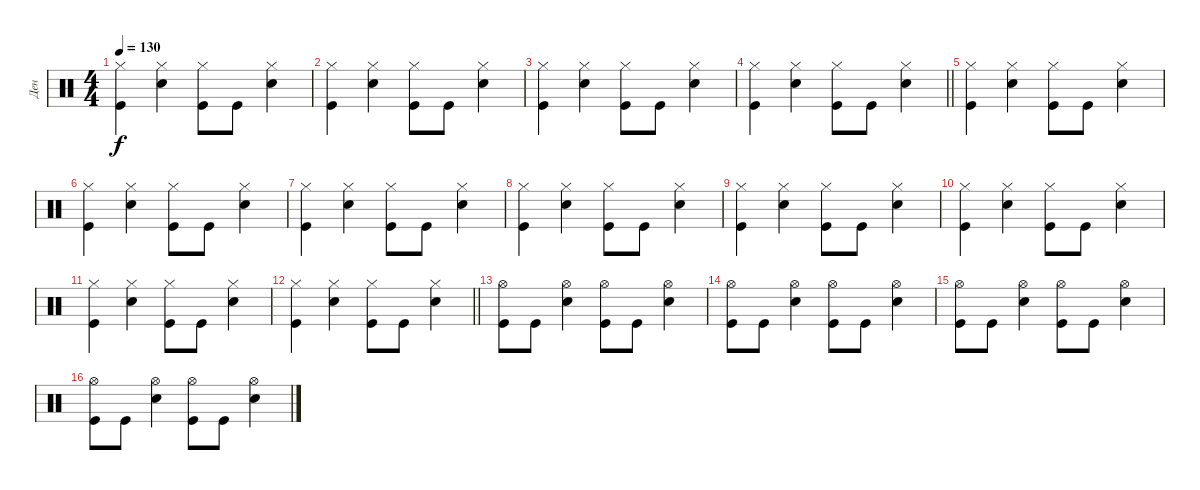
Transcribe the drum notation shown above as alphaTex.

\track ("Ден" "Ден") {instrument percussion}
\staff {score}
\articulation defaults
\ts (4 4)
\tempo 130
\clef neutral
\ks c
("Kick (hit)" "Hi-Hat (closed)").4{dy f} ("Snare (hit) 2" "Hi-Hat (closed)").4 ("Kick (hit)" "Hi-Hat (closed)").8 "Kick (hit)".8 ("Snare (hit) 2" "Hi-Hat (closed)").4 |
("Kick (hit)" "Hi-Hat (closed)").4 ("Snare (hit) 2" "Hi-Hat (closed)").4 ("Kick (hit)" "Hi-Hat (closed)").8 "Kick (hit)".8 ("Snare (hit) 2" "Hi-Hat (closed)").4 |
("Kick (hit)" "Hi-Hat (closed)").4 ("Snare (hit) 2" "Hi-Hat (closed)").4 ("Kick (hit)" "Hi-Hat (closed)").8 "Kick (hit)".8 ("Snare (hit) 2" "Hi-Hat (closed)").4 |
\barLineRight lightlight
("Kick (hit)" "Hi-Hat (closed)").4 ("Snare (hit) 2" "Hi-Hat (closed)").4 ("Kick (hit)" "Hi-Hat (closed)").8 "Kick (hit)".8 ("Snare (hit) 2" "Hi-Hat (closed)").4 |
("Kick (hit)" "Hi-Hat (closed)").4 ("Snare (hit) 2" "Hi-Hat (closed)").4 ("Kick (hit)" "Hi-Hat (closed)").8 "Kick (hit)".8 ("Snare (hit) 2" "Hi-Hat (closed)").4 |
("Kick (hit)" "Hi-Hat (closed)").4 ("Snare (hit) 2" "Hi-Hat (closed)").4 ("Kick (hit)" "Hi-Hat (closed)").8 "Kick (hit)".8 ("Snare (hit) 2" "Hi-Hat (closed)").4 |
("Kick (hit)" "Hi-Hat (closed)").4 ("Snare (hit) 2" "Hi-Hat (closed)").4 ("Kick (hit)" "Hi-Hat (closed)").8 "Kick (hit)".8 ("Snare (hit) 2" "Hi-Hat (closed)").4 |
("Kick (hit)" "Hi-Hat (closed)").4 ("Snare (hit) 2" "Hi-Hat (closed)").4 ("Kick (hit)" "Hi-Hat (closed)").8 "Kick (hit)".8 ("Snare (hit) 2" "Hi-Hat (closed)").4 |
("Kick (hit)" "Hi-Hat (closed)").4 ("Snare (hit) 2" "Hi-Hat (closed)").4 ("Kick (hit)" "Hi-Hat (closed)").8 "Kick (hit)".8 ("Snare (hit) 2" "Hi-Hat (closed)").4 |
("Kick (hit)" "Hi-Hat (closed)").4 ("Snare (hit) 2" "Hi-Hat (closed)").4 ("Kick (hit)" "Hi-Hat (closed)").8 "Kick (hit)".8 ("Snare (hit) 2" "Hi-Hat (closed)").4 |
("Kick (hit)" "Hi-Hat (closed)").4 ("Snare (hit) 2" "Hi-Hat (closed)").4 ("Kick (hit)" "Hi-Hat (closed)").8 "Kick (hit)".8 ("Snare (hit) 2" "Hi-Hat (closed)").4 |
\barLineRight lightlight
("Kick (hit)" "Hi-Hat (closed)").4 ("Snare (hit) 2" "Hi-Hat (closed)").4 ("Kick (hit)" "Hi-Hat (closed)").8 "Kick (hit)".8 ("Snare (hit) 2" "Hi-Hat (closed)").4 |
("Kick (hit)" "Hi-Hat (open)").8 "Kick (hit)".8 ("Snare (hit) 2" "Hi-Hat (open)").4 ("Kick (hit)" "Hi-Hat (open)").8 "Kick (hit)".8 ("Snare (hit) 2" "Hi-Hat (open)").4 |
("Kick (hit)" "Hi-Hat (open)").8 "Kick (hit)".8 ("Snare (hit) 2" "Hi-Hat (open)").4 ("Kick (hit)" "Hi-Hat (open)").8 "Kick (hit)".8 ("Snare (hit) 2" "Hi-Hat (open)").4 |
("Kick (hit)" "Hi-Hat (open)").8 "Kick (hit)".8 ("Snare (hit) 2" "Hi-Hat (open)").4 ("Kick (hit)" "Hi-Hat (open)").8 "Kick (hit)".8 ("Snare (hit) 2" "Hi-Hat (open)").4 |
("Kick (hit)" "Hi-Hat (open)").8 "Kick (hit)".8 ("Snare (hit) 2" "Hi-Hat (open)").4 ("Kick (hit)" "Hi-Hat (open)").8 "Kick (hit)".8 ("Snare (hit) 2" "Hi-Hat (open)").4
